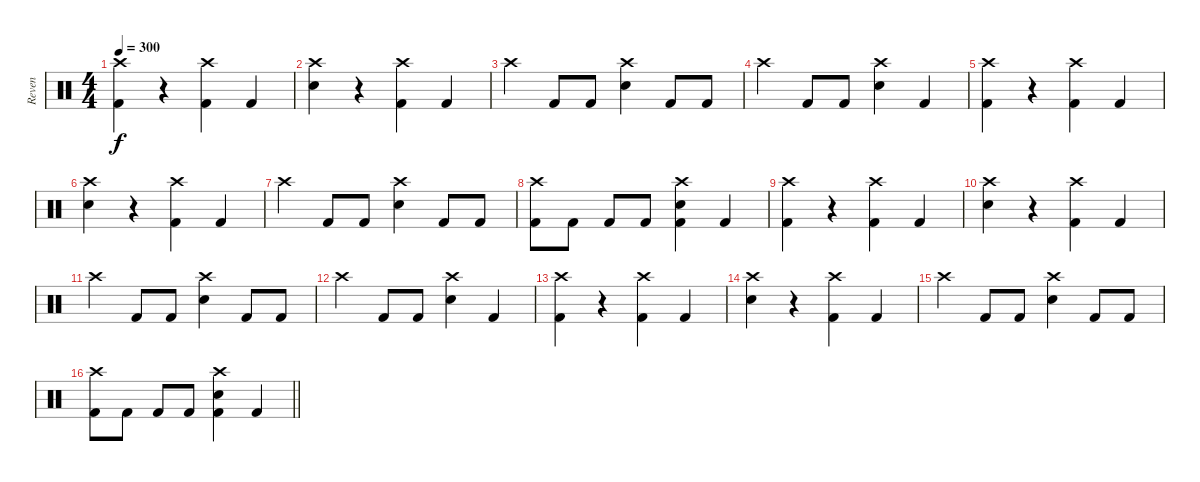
\track ("Reven" "Reven") {instrument percussion}
\staff {score}
\articulation defaults
\ts (4 4)
\tempo 300
\clef neutral
\ks c
("Crash high (hit)" "Kick (hit) 2").4{dy f} r.4 ("Crash high (hit)" "Kick (hit) 2").4 "Kick (hit) 2".4 |
("Crash high (hit)" "Electric Snare (hit)").4 r.4 ("Crash high (hit)" "Kick (hit) 2").4 "Kick (hit) 2".4 |
"Crash high (hit)".4 "Kick (hit) 2".8 "Kick (hit) 2".8 ("Crash high (hit)" "Electric Snare (hit)").4 "Kick (hit) 2".8 "Kick (hit) 2".8 |
"Crash high (hit)".4 "Kick (hit) 2".8 "Kick (hit) 2".8 ("Crash high (hit)" "Electric Snare (hit)").4 "Kick (hit) 2".4 |
("Crash high (hit)" "Kick (hit) 2").4 r.4 ("Crash high (hit)" "Kick (hit) 2").4 "Kick (hit) 2".4 |
("Crash high (hit)" "Electric Snare (hit)").4 r.4 ("Crash high (hit)" "Kick (hit) 2").4 "Kick (hit) 2".4 |
"Crash high (hit)".4 "Kick (hit) 2".8 "Kick (hit) 2".8 ("Crash high (hit)" "Electric Snare (hit)").4 "Kick (hit) 2".8 "Kick (hit) 2".8 |
("Crash high (hit)" "Kick (hit) 2").8 "Kick (hit) 2".8 "Kick (hit) 2".8 "Kick (hit) 2".8 ("Crash high (hit)" "Electric Snare (hit)" "Kick (hit) 2").4 "Kick (hit) 2".4 |
("Crash high (hit)" "Kick (hit) 2").4 r.4 ("Crash high (hit)" "Kick (hit) 2").4 "Kick (hit) 2".4 |
("Crash high (hit)" "Electric Snare (hit)").4 r.4 ("Crash high (hit)" "Kick (hit) 2").4 "Kick (hit) 2".4 |
"Crash high (hit)".4 "Kick (hit) 2".8 "Kick (hit) 2".8 ("Crash high (hit)" "Electric Snare (hit)").4 "Kick (hit) 2".8 "Kick (hit) 2".8 |
"Crash high (hit)".4 "Kick (hit) 2".8 "Kick (hit) 2".8 ("Crash high (hit)" "Electric Snare (hit)").4 "Kick (hit) 2".4 |
("Crash high (hit)" "Kick (hit) 2").4 r.4 ("Crash high (hit)" "Kick (hit) 2").4 "Kick (hit) 2".4 |
("Crash high (hit)" "Electric Snare (hit)").4 r.4 ("Crash high (hit)" "Kick (hit) 2").4 "Kick (hit) 2".4 |
"Crash high (hit)".4 "Kick (hit) 2".8 "Kick (hit) 2".8 ("Crash high (hit)" "Electric Snare (hit)").4 "Kick (hit) 2".8 "Kick (hit) 2".8 |
\barLineRight lightlight
("Crash high (hit)" "Kick (hit) 2").8 "Kick (hit) 2".8 "Kick (hit) 2".8 "Kick (hit) 2".8 ("Crash high (hit)" "Electric Snare (hit)" "Kick (hit) 2").4 "Kick (hit) 2".4
